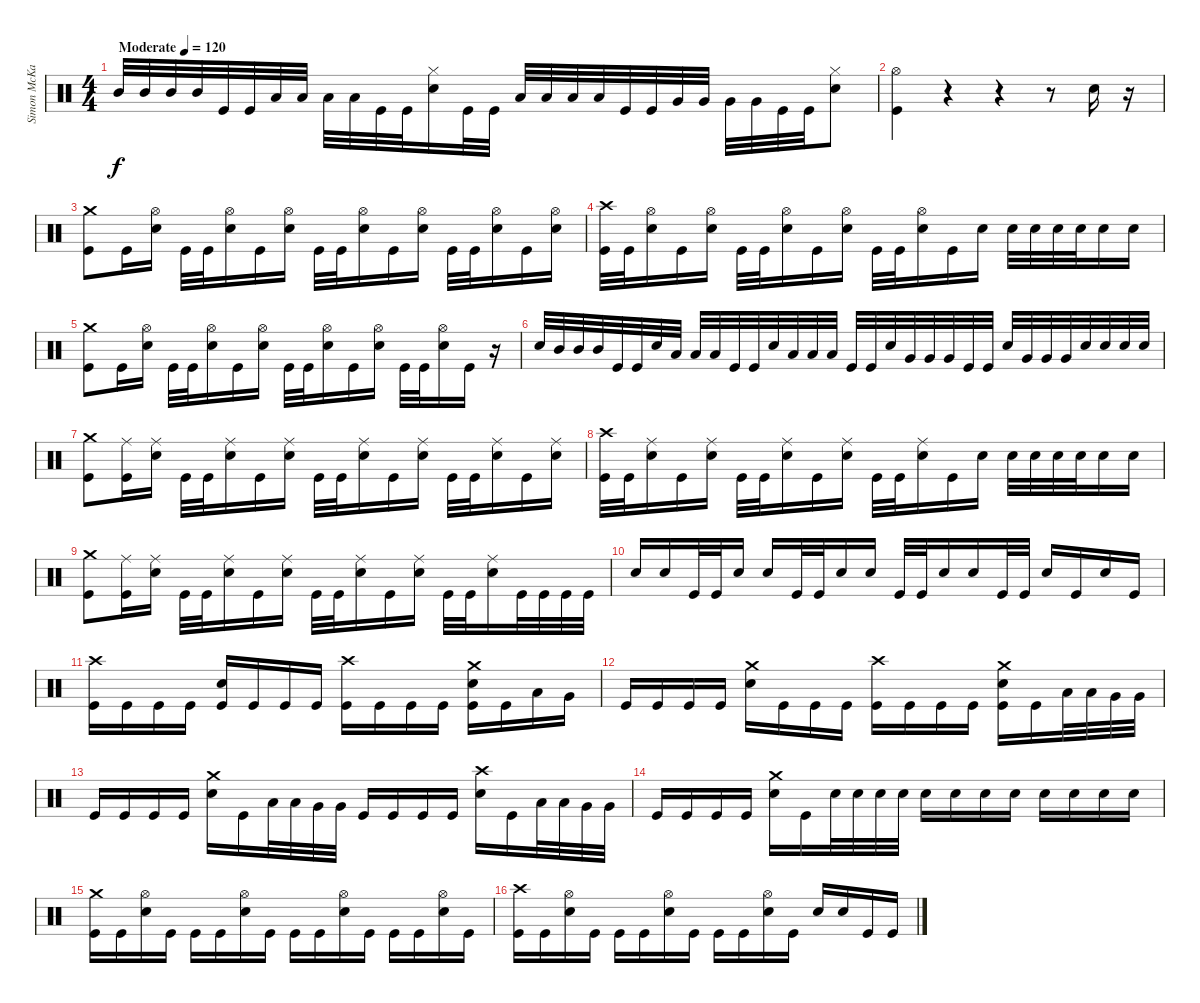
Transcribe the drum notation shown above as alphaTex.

\track ("Simon McKay" "Simon McKa") {instrument percussion}
\staff {score}
\articulation defaults
\ts (4 4)
\tempo (120 "Moderate")
\clef neutral
\ks c "Mid Tom (hit)".32{dy f} "Mid Tom (hit)".32 "Mid Tom (hit)".32 "Mid Tom (hit)".32 "Kick (hit)".32 "Kick (hit)".32 "Low Tom (hit)".32 "Low Tom (hit)".32 "Low Tom (hit)".32 "Low Tom (hit)".32 "Kick (hit)".32 "Kick (hit)".32
("Hi-Hat (closed)" "Electric Snare (hit)").16 "Kick (hit)".32 "Kick (hit)".32 "Low Tom (hit)".32 "Low Tom (hit)".32 "Low Tom (hit)".32 "Low Tom (hit)".32 "Kick (hit)".32 "Kick (hit)".32 "Very Low Tom (hit)".32 "Very Low Tom (hit)".32 "Very Low Tom (hit)".32 "Very Low Tom (hit)".32 "Kick (hit)".32 "Kick (hit)".32 ("Hi-Hat (closed)" "Electric Snare (hit)").8 |
("Hi-Hat (open)" "Kick (hit)").4 r.4 r.4 r.8 "Electric Snare (hit)".16 r.16 |
("Crash medium (hit)" "Kick (hit)").8 "Kick (hit)".16 ("Hi-Hat (open)" "Electric Snare (hit)").16 "Kick (hit)".32 "Kick (hit)".32 ("Hi-Hat (open)" "Electric Snare (hit)").16 "Kick (hit)".16 ("Hi-Hat (open)" "Electric Snare (hit)").16 "Kick (hit)".32 "Kick (hit)".32 ("Hi-Hat (open)" "Electric Snare (hit)").16 "Kick (hit)".16 ("Hi-Hat (open)" "Electric Snare (hit)").16 "Kick (hit)".32 "Kick (hit)".32 ("Hi-Hat (open)" "Electric Snare (hit)").16 "Kick (hit)".16 ("Hi-Hat (open)" "Electric Snare (hit)").16 |
("Crash high (hit)" "Kick (hit)").32 "Kick (hit)".32 ("Hi-Hat (open)" "Electric Snare (hit)").16 "Kick (hit)".16 ("Hi-Hat (open)" "Electric Snare (hit)").16 "Kick (hit)".32 "Kick (hit)".32 ("Hi-Hat (open)" "Electric Snare (hit)").16 "Kick (hit)".16 ("Hi-Hat (open)" "Electric Snare (hit)").16 "Kick (hit)".32 "Kick (hit)".32 ("Hi-Hat (open)" "Electric Snare (hit)").16 "Kick (hit)".16 "Electric Snare (hit)".16 "Electric Snare (hit)".32 "Electric Snare (hit)".32 "Electric Snare (hit)".32 "Electric Snare (hit)".32 "Electric Snare (hit)".16 "Electric Snare (hit)".16 |
("Crash medium (hit)" "Kick (hit)").8 "Kick (hit)".16 ("Hi-Hat (open)" "Electric Snare (hit)").16 "Kick (hit)".32 "Kick (hit)".32 ("Hi-Hat (open)" "Electric Snare (hit)").16 "Kick (hit)".16 ("Hi-Hat (open)" "Electric Snare (hit)").16 "Kick (hit)".32 "Kick (hit)".32 ("Hi-Hat (open)" "Electric Snare (hit)").16 "Kick (hit)".16 ("Hi-Hat (open)" "Electric Snare (hit)").16 "Kick (hit)".32 "Kick (hit)".32 ("Hi-Hat (open)" "Electric Snare (hit)").16 "Kick (hit)".16 r.16 |
"Electric Snare (hit)".32 "Mid Tom (hit)".32 "Mid Tom (hit)".32 "Mid Tom (hit)".32 "Kick (hit)".32 "Kick (hit)".32 "Electric Snare (hit)".32 "Low Tom (hit)".32 "Low Tom (hit)".32 "Low Tom (hit)".32 "Kick (hit)".32 "Kick (hit)".32 "Electric Snare (hit)".32 "Low Tom (hit)".32 "Low Tom (hit)".32 "Low Tom (hit)".32 "Kick (hit)".32 "Kick (hit)".32 "Electric Snare (hit)".32 "Very Low Tom (hit)".32 "Very Low Tom (hit)".32 "Very Low Tom (hit)".32 "Kick (hit)".32 "Kick (hit)".32 "Electric Snare (hit)".32 "Very Low Tom (hit)".32 "Very Low Tom (hit)".32 "Very Low Tom (hit)".32 "Electric Snare (hit)".32 "Electric Snare (hit)".32 "Electric Snare (hit)".32 "Electric Snare (hit)".32 |
("Crash medium (hit)" "Kick (hit)").8 ("Ride (middle)" "Kick (hit)").16 ("Ride (middle)" "Electric Snare (hit)").16 "Kick (hit)".32 "Kick (hit)".32 ("Ride (middle)" "Electric Snare (hit)").16 "Kick (hit)".16 ("Ride (middle)" "Electric Snare (hit)").16 "Kick (hit)".32 "Kick (hit)".32 ("Ride (middle)" "Electric Snare (hit)").16 "Kick (hit)".16 ("Ride (middle)" "Electric Snare (hit)").16 "Kick (hit)".32 "Kick (hit)".32 ("Ride (middle)" "Electric Snare (hit)").16 "Kick (hit)".16 ("Ride (middle)" "Electric Snare (hit)").16 |
("Crash high (hit)" "Kick (hit)").32 "Kick (hit)".32 ("Ride (middle)" "Electric Snare (hit)").16 "Kick (hit)".16 ("Ride (middle)" "Electric Snare (hit)").16 "Kick (hit)".32 "Kick (hit)".32 ("Ride (middle)" "Electric Snare (hit)").16 "Kick (hit)".16 ("Ride (middle)" "Electric Snare (hit)").16 "Kick (hit)".32 "Kick (hit)".32 ("Ride (middle)" "Electric Snare (hit)").16 "Kick (hit)".16 "Electric Snare (hit)".16 "Electric Snare (hit)".32 "Electric Snare (hit)".32 "Electric Snare (hit)".32 "Electric Snare (hit)".32 "Electric Snare (hit)".16 "Electric Snare (hit)".16 |
("Crash medium (hit)" "Kick (hit)").8 ("Ride (middle)" "Kick (hit)").16 ("Ride (middle)" "Electric Snare (hit)").16 "Kick (hit)".32 "Kick (hit)".32 ("Ride (middle)" "Electric Snare (hit)").16 "Kick (hit)".16 ("Ride (middle)" "Electric Snare (hit)").16 "Kick (hit)".32 "Kick (hit)".32 ("Ride (middle)" "Electric Snare (hit)").16 "Kick (hit)".16 ("Ride (middle)" "Electric Snare (hit)").16 "Kick (hit)".32 "Kick (hit)".32 ("Ride (middle)" "Electric Snare (hit)").16 "Kick (hit)".32 "Kick (hit)".32 "Kick (hit)".32 "Kick (hit)".32 |
"Electric Snare (hit)".16 "Electric Snare (hit)".16 "Kick (hit)".32 "Kick (hit)".32 "Electric Snare (hit)".16 "Electric Snare (hit)".16 "Kick (hit)".32 "Kick (hit)".32 "Electric Snare (hit)".16 "Electric Snare (hit)".16 "Kick (hit)".32 "Kick (hit)".32 "Electric Snare (hit)".16 "Electric Snare (hit)".16 "Kick (hit)".32 "Kick (hit)".32 "Electric Snare (hit)".16 "Kick (hit)".16 "Electric Snare (hit)".16 "Kick (hit)".16 |
("Crash high (hit)" "Kick (hit)").16 "Kick (hit)".16 "Kick (hit)".16 "Kick (hit)".16 ("Electric Snare (hit)" "Kick (hit)").16 "Kick (hit)".16 "Kick (hit)".16 "Kick (hit)".16 ("Crash high (hit)" "Kick (hit)").16 "Kick (hit)".16 "Kick (hit)".16 "Kick (hit)".16 ("Crash medium (hit)" "Electric Snare (hit)" "Kick (hit)").16 "Kick (hit)".16 "Low Tom (hit)".16 "Very Low Tom (hit)".16 |
"Kick (hit)".16 "Kick (hit)".16 "Kick (hit)".16 "Kick (hit)".16 ("Crash medium (hit)" "Electric Snare (hit)").16 "Kick (hit)".16 "Kick (hit)".16 "Kick (hit)".16 ("Crash high (hit)" "Kick (hit)").16 "Kick (hit)".16 "Kick (hit)".16 "Kick (hit)".16 ("Crash medium (hit)" "Electric Snare (hit)" "Kick (hit)").16 "Kick (hit)".16 "Low Tom (hit)".32 "Low Tom (hit)".32 "Very Low Tom (hit)".32 "Very Low Tom (hit)".32 |
"Kick (hit)".16 "Kick (hit)".16 "Kick (hit)".16 "Kick (hit)".16 ("Crash medium (hit)" "Electric Snare (hit)").16 "Kick (hit)".16 "Low Tom (hit)".32 "Low Tom (hit)".32 "Very Low Tom (hit)".32 "Very Low Tom (hit)".32 "Kick (hit)".16 "Kick (hit)".16 "Kick (hit)".16 "Kick (hit)".16 ("Crash high (hit)" "Electric Snare (hit)").16 "Kick (hit)".16 "Low Tom (hit)".32 "Low Tom (hit)".32 "Very Low Tom (hit)".32 "Very Low Tom (hit)".32 |
"Kick (hit)".16 "Kick (hit)".16 "Kick (hit)".16 "Kick (hit)".16 ("Crash medium (hit)" "Electric Snare (hit)").16 "Kick (hit)".16 "Electric Snare (hit)".32 "Electric Snare (hit)".32 "Electric Snare (hit)".32 "Electric Snare (hit)".32 "Electric Snare (hit)".16 "Electric Snare (hit)".16 "Electric Snare (hit)".16 "Electric Snare (hit)".16 "Electric Snare (hit)".16 "Electric Snare (hit)".16 "Electric Snare (hit)".16 "Electric Snare (hit)".16 |
("Crash medium (hit)" "Kick (hit)").16 "Kick (hit)".16 ("Hi-Hat (open)" "Electric Snare (hit)").16 "Kick (hit)".16 "Kick (hit)".16 "Kick (hit)".16 ("Hi-Hat (open)" "Electric Snare (hit)").16 "Kick (hit)".16 "Kick (hit)".16 "Kick (hit)".16 ("Hi-Hat (open)" "Electric Snare (hit)").16 "Kick (hit)".16 "Kick (hit)".16 "Kick (hit)".16 ("Hi-Hat (open)" "Electric Snare (hit)").16 "Kick (hit)".16 |
("Crash high (hit)" "Kick (hit)").16 "Kick (hit)".16 ("Hi-Hat (open)" "Electric Snare (hit)").16 "Kick (hit)".16 "Kick (hit)".16 "Kick (hit)".16 ("Hi-Hat (open)" "Electric Snare (hit)").16 "Kick (hit)".16 "Kick (hit)".16 "Kick (hit)".16 ("Hi-Hat (open)" "Electric Snare (hit)").16 "Kick (hit)".16 "Electric Snare (hit)".16 "Electric Snare (hit)".16 "Kick (hit)".16 "Kick (hit)".16
